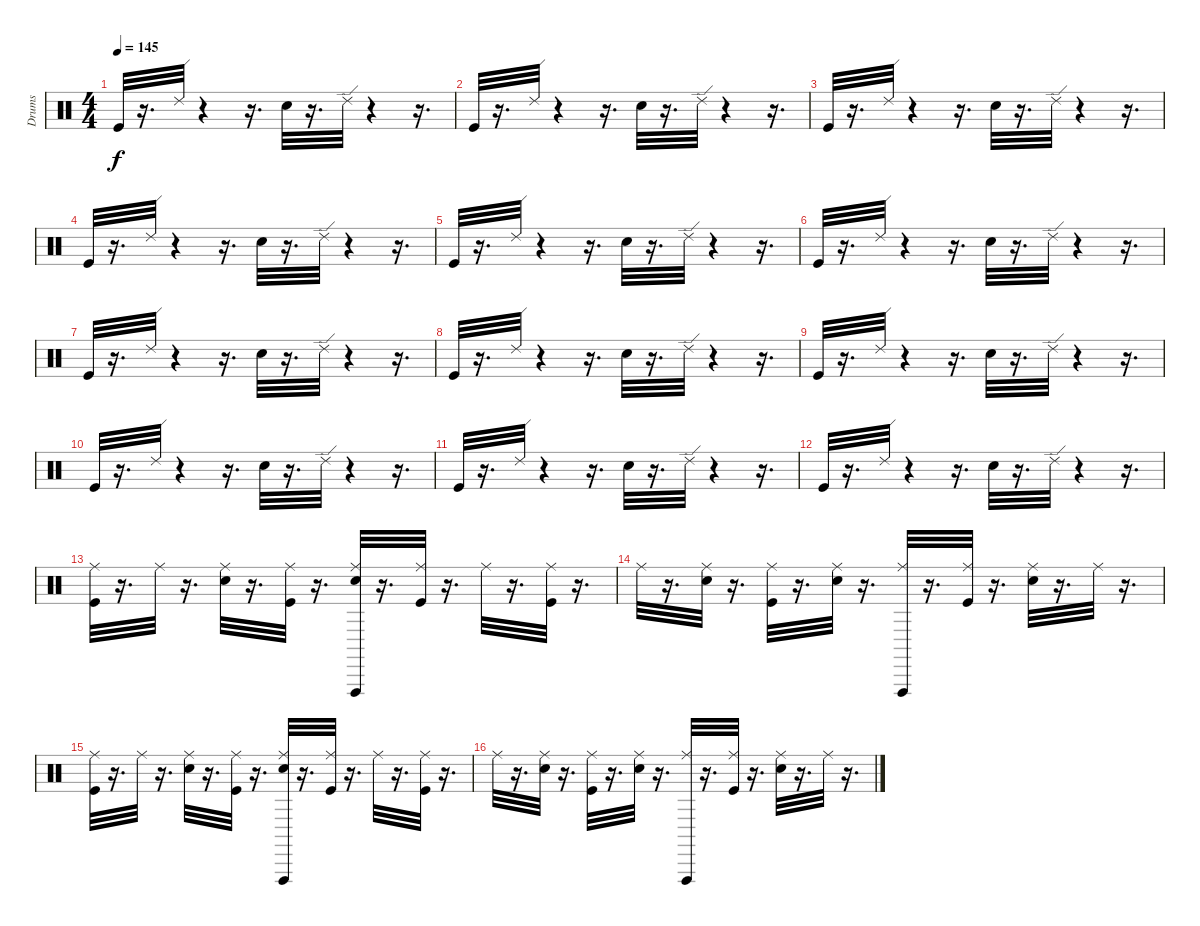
\track ("Drums" "Drums") {instrument percussion}
\staff {score}
\articulation defaults
\ts (4 4)
\tempo 145
\clef neutral
\ks c "Kick (hit)".32{dy f}
r.16{d} "Ride (edge) 2".32 r.4 r.16{d} "Snare (hit) 2".32 r.16{d} "Ride (edge) 2".32 r.4 r.16{d} |
"Kick (hit)".32 r.16{d} "Ride (edge) 2".32 r.4 r.16{d} "Snare (hit) 2".32 r.16{d} "Ride (edge) 2".32 r.4 r.16{d} |
"Kick (hit)".32 r.16{d} "Ride (edge) 2".32 r.4 r.16{d} "Snare (hit) 2".32 r.16{d} "Ride (edge) 2".32 r.4 r.16{d} |
"Kick (hit)".32 r.16{d} "Ride (edge) 2".32 r.4 r.16{d} "Snare (hit) 2".32 r.16{d} "Ride (edge) 2".32 r.4 r.16{d} |
"Kick (hit)".32 r.16{d} "Ride (edge) 2".32 r.4 r.16{d} "Snare (hit) 2".32 r.16{d} "Ride (edge) 2".32 r.4 r.16{d} |
"Kick (hit)".32 r.16{d} "Ride (edge) 2".32 r.4 r.16{d} "Snare (hit) 2".32 r.16{d} "Ride (edge) 2".32 r.4 r.16{d} |
"Kick (hit)".32 r.16{d} "Ride (edge) 2".32 r.4 r.16{d} "Snare (hit) 2".32 r.16{d} "Ride (edge) 2".32 r.4 r.16{d} |
"Kick (hit)".32 r.16{d} "Ride (edge) 2".32 r.4 r.16{d} "Snare (hit) 2".32 r.16{d} "Ride (edge) 2".32 r.4 r.16{d} |
"Kick (hit)".32 r.16{d} "Ride (edge) 2".32 r.4 r.16{d} "Snare (hit) 2".32 r.16{d} "Ride (edge) 2".32 r.4 r.16{d} |
"Kick (hit)".32 r.16{d} "Ride (edge) 2".32 r.4 r.16{d} "Snare (hit) 2".32 r.16{d} "Ride (edge) 2".32 r.4 r.16{d} |
"Kick (hit)".32 r.16{d} "Ride (edge) 2".32 r.4 r.16{d} "Snare (hit) 2".32 r.16{d} "Ride (edge) 2".32 r.4 r.16{d} |
"Kick (hit)".32 r.16{d} "Ride (edge) 2".32 r.4 r.16{d} "Snare (hit) 2".32 r.16{d} "Ride (edge) 2".32 r.4 r.16{d} |
("Ride (middle)" "Kick (hit)").32 r.16{d} "Ride (middle)".32 r.16{d} ("Snare (hit) 2" "Ride (middle)").32 r.16{d} ("Ride (middle)" "Kick (hit)").32 r.16{d} ("Snare (hit) 2" "Vibraslap (hit)" "Ride (middle)").32 r.16{d} ("Kick (hit)" "Ride (middle)").32 r.16{d} "Ride (middle)".32 r.16{d} ("Ride (middle)" "Kick (hit)").32 r.16{d} |
"Ride (middle)".32 r.16{d} ("Ride (middle)" "Snare (hit) 2").32 r.16{d} ("Ride (middle)" "Kick (hit)").32 r.16{d} ("Ride (middle)" "Snare (hit) 2").32 r.16{d} ("Vibraslap (hit)" "Ride (middle)").32 r.16{d} ("Ride (middle)" "Kick (hit)").32 r.16{d} ("Ride (middle)" "Snare (hit) 2").32 r.16{d} "Ride (middle)".32 r.16{d} |
("Kick (hit)" "Ride (middle)").32 r.16{d} "Ride (middle)".32 r.16{d} ("Snare (hit) 2" "Ride (middle)").32 r.16{d} ("Ride (middle)" "Kick (hit)").32 r.16{d} ("Vibraslap (hit)" "Snare (hit) 2" "Ride (middle)").32 r.16{d} ("Kick (hit)" "Ride (middle)").32 r.16{d} "Ride (middle)".32 r.16{d} ("Ride (middle)" "Kick (hit)").32 r.16{d} |
"Ride (middle)".32 r.16{d} ("Ride (middle)" "Snare (hit) 2").32 r.16{d} ("Ride (middle)" "Kick (hit)").32 r.16{d} ("Ride (middle)" "Snare (hit) 2").32 r.16{d} ("Vibraslap (hit)" "Ride (middle)").32 r.16{d} ("Ride (middle)" "Kick (hit)").32 r.16{d} ("Ride (middle)" "Snare (hit) 2").32 r.16{d} "Ride (middle)".32 r.16{d}
